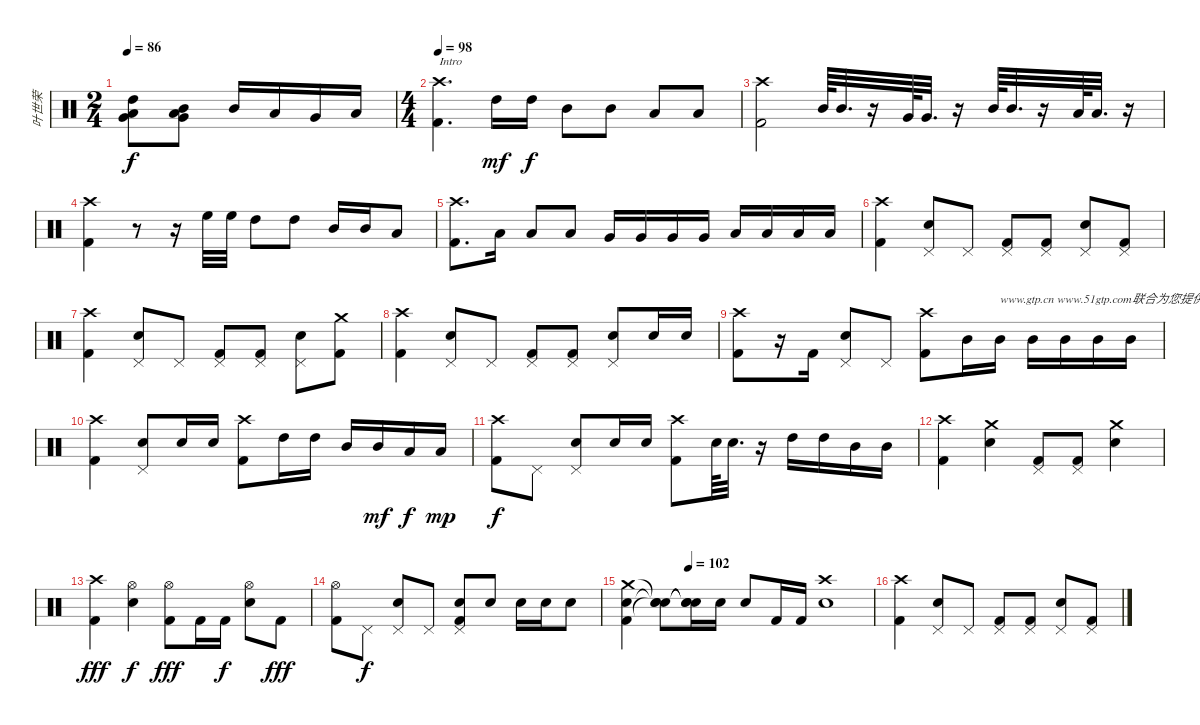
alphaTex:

\track ("叶世荣" "叶世荣") {instrument percussion}
\staff {score}
\articulation defaults
\ts (2 4)
\tempo 86
\tempo 102
\tempo 86
\clef neutral
\ks c
("High Tom (hit)" "Low Tom (hit)" "Very Low Tom (hit)").8{dy f} ("Very Low Tom (hit)" "Mid Tom (hit)" "Low Tom (hit)").8 "Mid Tom (hit)".16 "Low Tom (hit)".16 "Very Low Tom (hit)".16 "Low Tom (hit)".16 |
\ts (4 4)
\tempo 98
("Crash high (hit)" "Kick (hit) 2").4{d txt "Intro"} "High Tom (hit)".16{dy mf} "High Tom (hit)".16{dy f} "Mid Tom (hit)".8 "Mid Tom (hit)".8 "Low Tom (hit)".8 "Low Tom (hit)".8 |
("Crash high (hit)" "Kick (hit) 2").2 "Mid Tom (hit)".64 "Mid Tom (hit)".32{d} r.16 "Very Low Tom (hit)".64 "Very Low Tom (hit)".32{d} r.16 "Mid Tom (hit)".64 "Mid Tom (hit)".32{d} r.16 "Low Tom (hit)".64 "Low Tom (hit)".32{d} r.16 |
("Crash high (hit)" "Kick (hit) 2").4 r.8 r.16 "High Floor Tom (hit)".32 "High Floor Tom (hit)".32 "High Tom (hit)".8 "High Tom (hit)".8 "Mid Tom (hit)".16 "Mid Tom (hit)".16 "Low Tom (hit)".8 |
("Crash high (hit)" "Kick (hit) 2").8{d} "Low Tom (hit)".16 "Low Tom (hit)".8 "Low Tom (hit)".8 "Very Low Tom (hit)".16 "Very Low Tom (hit)".16 "Very Low Tom (hit)".16 "Very Low Tom (hit)".16 "Low Floor Tom (hit)".16 "Low Floor Tom (hit)".16 "Low Floor Tom (hit)".16 "Low Floor Tom (hit)".16 |
("Crash high (hit)" "Kick (hit) 2").4 ("Pedal Hi-Hat (hit)" "Snare (hit) 2").8 "Pedal Hi-Hat (hit)".8 ("Pedal Hi-Hat (hit)" "Kick (hit) 2").8 ("Pedal Hi-Hat (hit)" "Kick (hit) 2").8 ("Pedal Hi-Hat (hit)" "Snare (hit) 2").8 ("Pedal Hi-Hat (hit)" "Kick (hit) 2").8 |
("Crash high (hit)" "Kick (hit) 2").4 ("Pedal Hi-Hat (hit)" "Snare (hit) 2").8 "Pedal Hi-Hat (hit)".8 ("Pedal Hi-Hat (hit)" "Kick (hit) 2").8 ("Pedal Hi-Hat (hit)" "Kick (hit) 2").8 ("Pedal Hi-Hat (hit)" "Snare (hit) 2").8 ("Crash medium (hit)" "Kick (hit) 2").8 |
("Crash high (hit)" "Kick (hit) 2").4 ("Pedal Hi-Hat (hit)" "Snare (hit) 2").8 "Pedal Hi-Hat (hit)".8 ("Pedal Hi-Hat (hit)" "Kick (hit) 2").8 ("Pedal Hi-Hat (hit)" "Kick (hit) 2").8 ("Pedal Hi-Hat (hit)" "Snare (hit) 2").8 "Snare (hit) 2".16 "Snare (hit) 2".16 |
("Crash high (hit)" "Kick (hit) 2").8 r.16 "Kick (hit) 2".16 ("Pedal Hi-Hat (hit)" "Snare (hit) 2").8 "Pedal Hi-Hat (hit)".8 ("Crash high (hit)" "Kick (hit) 2").8 "Mid Tom (hit)".16 "Mid Tom (hit)".16{txt "www.gtp.cn www.51gtp.com联合为您提供优秀的GTP!"} "Mid Tom (hit)".16 "Mid Tom (hit)".16 "Mid Tom (hit)".16 "Mid Tom (hit)".16 |
("Crash high (hit)" "Kick (hit) 2").4 ("Pedal Hi-Hat (hit)" "Snare (hit) 2").8 "Snare (hit) 2".16 "Snare (hit) 2".16 ("Crash high (hit)" "Kick (hit) 2").8 "High Tom (hit)".16 "High Tom (hit)".16 "Mid Tom (hit)".16 "Mid Tom (hit)".16{dy mf} "Low Tom (hit)".16{dy f} "Low Tom (hit)".16{dy mp} |
("Crash high (hit)" "Kick (hit) 2").8{dy f} "Pedal Hi-Hat (hit)".8 ("Pedal Hi-Hat (hit)" "Snare (hit) 2").8 "Snare (hit) 2".16 "Snare (hit) 2".16 ("Crash high (hit)" "Kick (hit) 2").8 "Snare (hit) 2".64 "Snare (hit) 2".32{d} r.16 "High Tom (hit)".16 "High Tom (hit)".16 "Mid Tom (hit)".16 "Mid Tom (hit)".16 |
("Crash high (hit)" "Kick (hit) 2").4 ("Crash medium (hit)" "Snare (hit) 2").4 ("Pedal Hi-Hat (hit)" "Kick (hit) 2").8 ("Pedal Hi-Hat (hit)" "Kick (hit) 2").8 ("Crash medium (hit)" "Snare (hit) 2").4 |
("Crash high (hit)" "Kick (hit) 2").4{dy fff} ("Hi-Hat (open)" "Snare (hit) 2").4{dy f} ("Hi-Hat (open)" "Kick (hit) 2").8{dy fff} "Kick (hit) 2".16 "Kick (hit) 2".16{dy f} ("Hi-Hat (open)" "Snare (hit) 2").8 "Kick (hit) 2".8{dy fff} |
("Hi-Hat (open)" "Kick (hit) 2").8 "Pedal Hi-Hat (hit)".8{dy f} ("Pedal Hi-Hat (hit)" "Snare (hit) 2").8 "Pedal Hi-Hat (hit)".8 ("Pedal Hi-Hat (hit)" "Snare (hit) 2" "Kick (hit) 2").8 "Snare (hit) 2".8 "Snare (hit) 2".16 "Snare (hit) 2".16 "Snare (hit) 2".8 |
\tempo (102 0.25)
("Crash medium (hit)" "Snare (hit) 2" "Kick (hit) 2").4 ("Snare (hit)"{t} "Snare (hit)"{t} "Snare (hit)"{t}).8 ("Snare (hit)"{t} "Snare (hit)"{t} "Snare (hit)"{t}).16 "Snare (hit) 2".16 "Snare (hit) 2".8 "Kick (hit) 2".16 "Kick (hit) 2".16 ("Snare (hit) 2" "Crash high (hit)").1 |
("Crash high (hit)" "Kick (hit) 2").4 ("Pedal Hi-Hat (hit)" "Snare (hit) 2").8 "Pedal Hi-Hat (hit)".8 ("Pedal Hi-Hat (hit)" "Kick (hit) 2").8 ("Pedal Hi-Hat (hit)" "Kick (hit) 2").8 ("Pedal Hi-Hat (hit)" "Snare (hit) 2").8 ("Pedal Hi-Hat (hit)" "Kick (hit) 2").8
